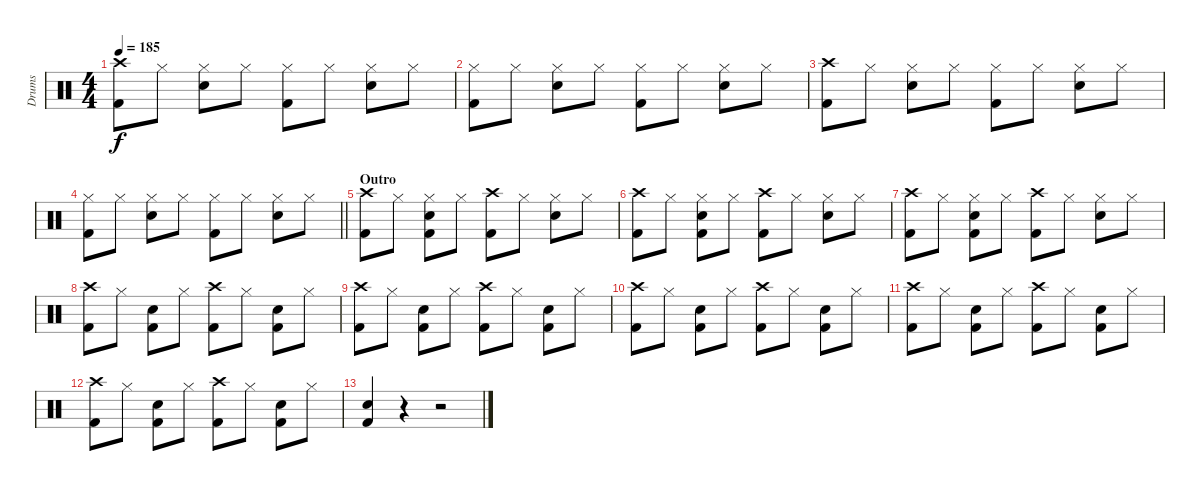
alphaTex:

\track ("Drums" "Drums") {instrument percussion}
\staff {score}
\articulation defaults
\ts (4 4)
\tempo 185
\clef neutral
\ks c
("Crash high (hit)" "Kick (hit) 2").8{dy f} "Hi-Hat (closed)".8 ("Hi-Hat (closed)" "Snare (hit) 2").8 "Hi-Hat (closed)".8 ("Hi-Hat (closed)" "Kick (hit) 2").8 "Hi-Hat (closed)".8 ("Hi-Hat (closed)" "Snare (hit) 2").8 "Hi-Hat (closed)".8 |
("Hi-Hat (closed)" "Kick (hit) 2").8 "Hi-Hat (closed)".8 ("Hi-Hat (closed)" "Snare (hit) 2").8 "Hi-Hat (closed)".8 ("Hi-Hat (closed)" "Kick (hit) 2").8 "Hi-Hat (closed)".8 ("Hi-Hat (closed)" "Snare (hit) 2").8 "Hi-Hat (closed)".8 |
("Crash high (hit)" "Kick (hit) 2").8 "Hi-Hat (closed)".8 ("Hi-Hat (closed)" "Snare (hit) 2").8 "Hi-Hat (closed)".8 ("Hi-Hat (closed)" "Kick (hit) 2").8 "Hi-Hat (closed)".8 ("Hi-Hat (closed)" "Snare (hit) 2").8 "Hi-Hat (closed)".8 |
\barLineRight lightlight
("Hi-Hat (closed)" "Kick (hit) 2").8 "Hi-Hat (closed)".8 ("Hi-Hat (closed)" "Snare (hit) 2").8 "Hi-Hat (closed)".8 ("Hi-Hat (closed)" "Kick (hit) 2").8 "Hi-Hat (closed)".8 ("Hi-Hat (closed)" "Snare (hit) 2").8 "Hi-Hat (closed)".8 |
\section ("" "Outro")
("Crash high (hit)" "Kick (hit) 2").8 "Hi-Hat (closed)".8 ("Hi-Hat (closed)" "Snare (hit) 2" "Kick (hit) 2").8 "Hi-Hat (closed)".8 ("Crash high (hit)" "Kick (hit) 2").8 "Hi-Hat (closed)".8 ("Hi-Hat (closed)" "Snare (hit) 2").8 "Hi-Hat (closed)".8 |
("Crash high (hit)" "Kick (hit) 2").8 "Hi-Hat (closed)".8 ("Hi-Hat (closed)" "Snare (hit) 2" "Kick (hit) 2").8 "Hi-Hat (closed)".8 ("Crash high (hit)" "Kick (hit) 2").8 "Hi-Hat (closed)".8 ("Hi-Hat (closed)" "Snare (hit) 2").8 "Hi-Hat (closed)".8 |
("Crash high (hit)" "Kick (hit) 2").8 "Hi-Hat (closed)".8 ("Hi-Hat (closed)" "Snare (hit) 2" "Kick (hit) 2").8 "Hi-Hat (closed)".8 ("Crash high (hit)" "Kick (hit) 2").8 "Hi-Hat (closed)".8 ("Hi-Hat (closed)" "Snare (hit) 2").8 "Hi-Hat (closed)".8 |
("Crash high (hit)" "Kick (hit) 2").8 "Hi-Hat (closed)".8 ("Snare (hit) 2" "Kick (hit) 2").8 "Hi-Hat (closed)".8 ("Crash high (hit)" "Kick (hit) 2").8 "Hi-Hat (closed)".8 ("Snare (hit) 2" "Kick (hit) 2").8 "Hi-Hat (closed)".8 |
("Crash high (hit)" "Kick (hit) 2").8 "Hi-Hat (closed)".8 ("Snare (hit) 2" "Kick (hit) 2").8 "Hi-Hat (closed)".8 ("Crash high (hit)" "Kick (hit) 2").8 "Hi-Hat (closed)".8 ("Snare (hit) 2" "Kick (hit) 2").8 "Hi-Hat (closed)".8 |
("Crash high (hit)" "Kick (hit) 2").8 "Hi-Hat (closed)".8 ("Snare (hit) 2" "Kick (hit) 2").8 "Hi-Hat (closed)".8 ("Crash high (hit)" "Kick (hit) 2").8 "Hi-Hat (closed)".8 ("Snare (hit) 2" "Kick (hit) 2").8 "Hi-Hat (closed)".8 |
("Crash high (hit)" "Kick (hit) 2").8 "Hi-Hat (closed)".8 ("Snare (hit) 2" "Kick (hit) 2").8 "Hi-Hat (closed)".8 ("Crash high (hit)" "Kick (hit) 2").8 "Hi-Hat (closed)".8 ("Snare (hit) 2" "Kick (hit) 2").8 "Hi-Hat (closed)".8 |
("Crash high (hit)" "Kick (hit) 2").8 "Hi-Hat (closed)".8 ("Snare (hit) 2" "Kick (hit) 2").8 "Hi-Hat (closed)".8 ("Crash high (hit)" "Kick (hit) 2").8 "Hi-Hat (closed)".8 ("Snare (hit) 2" "Kick (hit) 2").8 "Hi-Hat (closed)".8 |
("Snare (hit) 2" "Kick (hit) 2").4 r.4 r.2
